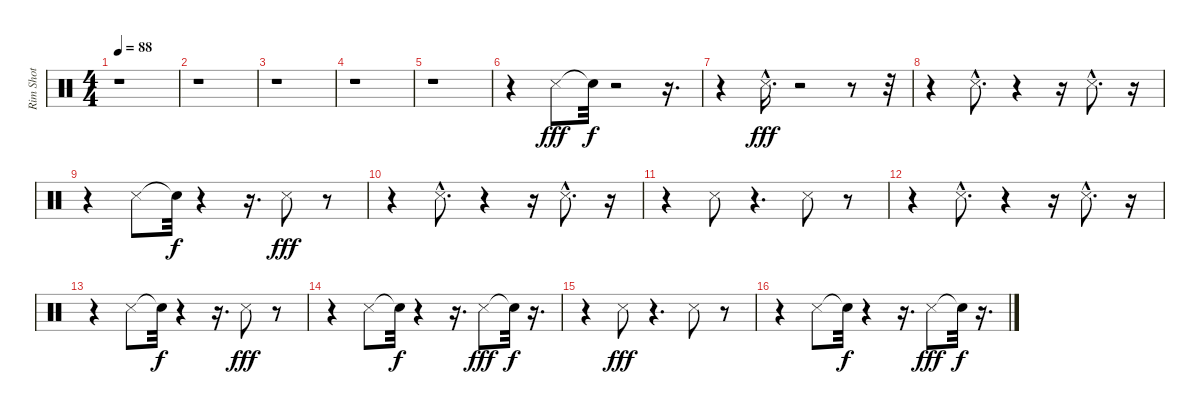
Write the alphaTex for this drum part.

\track ("Rim Shot" "Rim Shot") {instrument percussion}
\staff {score}
\articulation defaults
\ts (4 4)
\tempo 88
\clef neutral
\ks c
r.1{dy fff} |
r.1 |
r.1 |
r.1 |
r.1 |
r.4 "Snare (side stick) 3".8 "Snare (hit)"{t}.32{dy f} r.2 r.16{d} |
r.4 "Snare (side stick) 3"{hac}.16{d dy fff} r.2 r.8 r.32 |
r.4 "Snare (side stick) 3"{hac}.8{d} r.4 r.16 "Snare (side stick) 3"{hac}.8{d} r.16 |
r.4 "Snare (side stick) 3".8 "Snare (hit)"{t}.32{dy f} r.4 r.16{d} "Snare (side stick) 3".8{dy fff} r.8 |
r.4 "Snare (side stick) 3"{hac}.8{d} r.4 r.16 "Snare (side stick) 3"{hac}.8{d} r.16 |
r.4 "Snare (side stick) 3".8 r.4{d} "Snare (side stick) 3".8 r.8 |
r.4 "Snare (side stick) 3"{hac}.8{d} r.4 r.16 "Snare (side stick) 3"{hac}.8{d} r.16 |
r.4 "Snare (side stick) 3".8 "Snare (hit)"{t}.32{dy f} r.4 r.16{d} "Snare (side stick) 3".8{dy fff} r.8 |
r.4 "Snare (side stick) 3".8 "Snare (hit)"{t}.32{dy f} r.4 r.16{d} "Snare (side stick) 3".8{dy fff} "Snare (hit)"{t}.32{dy f} r.16{d} |
r.4 "Snare (side stick) 3".8{dy fff} r.4{d} "Snare (side stick) 3".8 r.8 |
r.4 "Snare (side stick) 3".8 "Snare (hit)"{t}.32{dy f} r.4 r.16{d} "Snare (side stick) 3".8{dy fff} "Snare (hit)"{t}.32{dy f} r.16{d}
